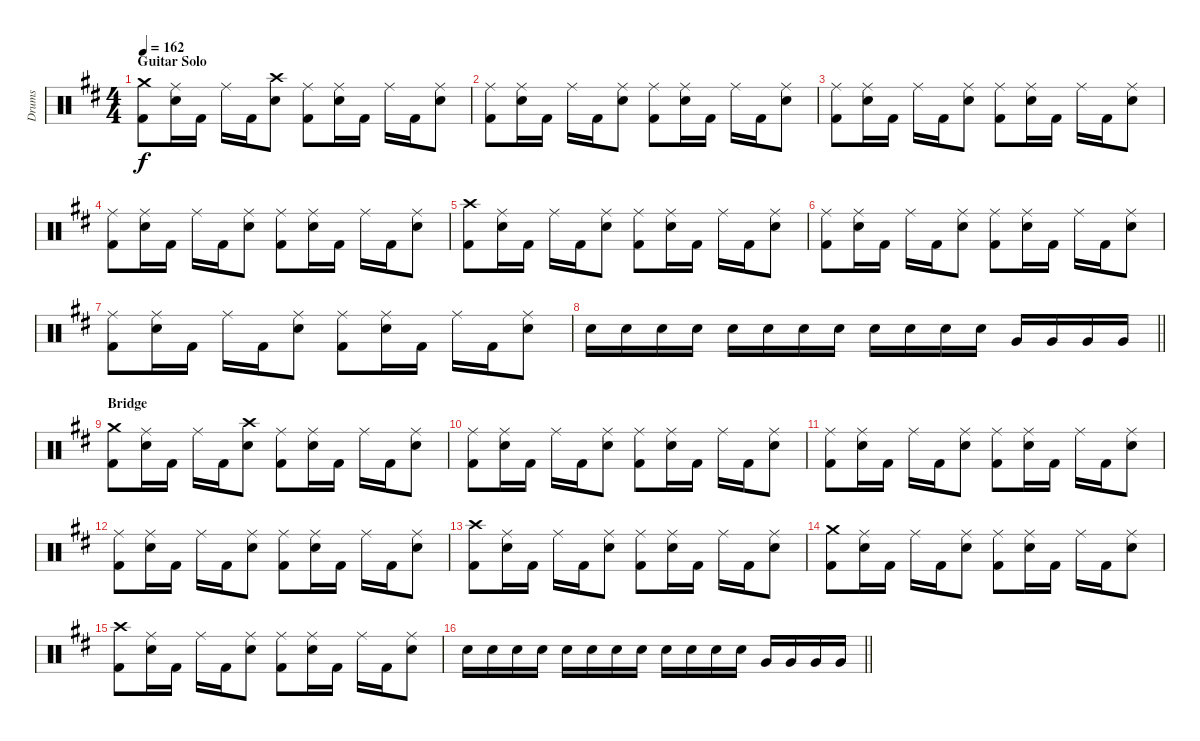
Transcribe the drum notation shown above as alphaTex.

\track ("Drums" "Drums") {instrument percussion}
\staff {score}
\articulation defaults
\ts (4 4)
\section ("" "Guitar Solo")
\tempo 162
\clef neutral
\ks d
("Crash medium (hit)" "Kick (hit) 2").8{dy f} ("Ride (middle)" "Snare (hit) 2").16 "Kick (hit) 2".16 "Ride (middle)".16 "Kick (hit) 2".16 ("Crash high (hit)" "Snare (hit) 2").8 ("Ride (middle)" "Kick (hit) 2").8 ("Ride (middle)" "Snare (hit) 2").16 "Kick (hit) 2".16 "Ride (middle)".16 "Kick (hit) 2".16 ("Ride (middle)" "Snare (hit) 2").8 |
("Ride (middle)" "Kick (hit) 2").8 ("Ride (middle)" "Snare (hit) 2").16 "Kick (hit) 2".16 "Ride (middle)".16 "Kick (hit) 2".16 ("Ride (middle)" "Snare (hit) 2").8 ("Ride (middle)" "Kick (hit) 2").8 ("Ride (middle)" "Snare (hit) 2").16 "Kick (hit) 2".16 "Ride (middle)".16 "Kick (hit) 2".16 ("Ride (middle)" "Snare (hit) 2").8 |
("Ride (middle)" "Kick (hit) 2").8 ("Ride (middle)" "Snare (hit) 2").16 "Kick (hit) 2".16 "Ride (middle)".16 "Kick (hit) 2".16 ("Ride (middle)" "Snare (hit) 2").8 ("Ride (middle)" "Kick (hit) 2").8 ("Ride (middle)" "Snare (hit) 2").16 "Kick (hit) 2".16 "Ride (middle)".16 "Kick (hit) 2".16 ("Ride (middle)" "Snare (hit) 2").8 |
("Ride (middle)" "Kick (hit) 2").8 ("Ride (middle)" "Snare (hit) 2").16 "Kick (hit) 2".16 "Ride (middle)".16 "Kick (hit) 2".16 ("Ride (middle)" "Snare (hit) 2").8 ("Ride (middle)" "Kick (hit) 2").8 ("Ride (middle)" "Snare (hit) 2").16 "Kick (hit) 2".16 "Ride (middle)".16 "Kick (hit) 2".16 ("Ride (middle)" "Snare (hit) 2").8 |
("Crash high (hit)" "Kick (hit) 2").8 ("Ride (middle)" "Snare (hit) 2").16 "Kick (hit) 2".16 "Ride (middle)".16 "Kick (hit) 2".16 ("Ride (middle)" "Snare (hit) 2").8 ("Ride (middle)" "Kick (hit) 2").8 ("Ride (middle)" "Snare (hit) 2").16 "Kick (hit) 2".16 "Ride (middle)".16 "Kick (hit) 2".16 ("Ride (middle)" "Snare (hit) 2").8 |
("Ride (middle)" "Kick (hit) 2").8 ("Ride (middle)" "Snare (hit) 2").16 "Kick (hit) 2".16 "Ride (middle)".16 "Kick (hit) 2".16 ("Ride (middle)" "Snare (hit) 2").8 ("Ride (middle)" "Kick (hit) 2").8 ("Ride (middle)" "Snare (hit) 2").16 "Kick (hit) 2".16 "Ride (middle)".16 "Kick (hit) 2".16 ("Ride (middle)" "Snare (hit) 2").8 |
("Ride (middle)" "Kick (hit) 2").8 ("Ride (middle)" "Snare (hit) 2").16 "Kick (hit) 2".16 "Ride (middle)".16 "Kick (hit) 2".16 ("Ride (middle)" "Snare (hit) 2").8 ("Ride (middle)" "Kick (hit) 2").8 ("Ride (middle)" "Snare (hit) 2").16 "Kick (hit) 2".16 "Ride (middle)".16 "Kick (hit) 2".16 ("Ride (middle)" "Snare (hit) 2").8 |
\barLineRight lightlight "Snare (hit) 2".16 "Snare (hit) 2".16 "Snare (hit) 2".16 "Snare (hit) 2".16 "Snare (hit) 2".16 "Snare (hit) 2".16 "Snare (hit) 2".16 "Snare (hit) 2".16 "Snare (hit) 2".16 "Snare (hit) 2".16 "Snare (hit) 2".16 "Snare (hit) 2".16 "Very Low Tom (hit)".16 "Very Low Tom (hit)".16 "Very Low Tom (hit)".16 "Very Low Tom (hit)".16
|
\section ("" "Bridge")
("Crash medium (hit)" "Kick (hit) 2").8 ("Ride (middle)" "Snare (hit) 2").16 "Kick (hit) 2".16 "Ride (middle)".16 "Kick (hit) 2".16 ("Crash high (hit)" "Snare (hit) 2").8 ("Ride (middle)" "Kick (hit) 2").8 ("Ride (middle)" "Snare (hit) 2").16 "Kick (hit) 2".16 "Ride (middle)".16 "Kick (hit) 2".16 ("Ride (middle)" "Snare (hit) 2").8 |
("Ride (middle)" "Kick (hit) 2").8 ("Ride (middle)" "Snare (hit) 2").16 "Kick (hit) 2".16 "Ride (middle)".16 "Kick (hit) 2".16 ("Ride (middle)" "Snare (hit) 2").8 ("Ride (middle)" "Kick (hit) 2").8 ("Ride (middle)" "Snare (hit) 2").16 "Kick (hit) 2".16 "Ride (middle)".16 "Kick (hit) 2".16 ("Ride (middle)" "Snare (hit) 2").8 |
("Ride (middle)" "Kick (hit) 2").8 ("Ride (middle)" "Snare (hit) 2").16 "Kick (hit) 2".16 "Ride (middle)".16 "Kick (hit) 2".16 ("Ride (middle)" "Snare (hit) 2").8 ("Ride (middle)" "Kick (hit) 2").8 ("Ride (middle)" "Snare (hit) 2").16 "Kick (hit) 2".16 "Ride (middle)".16 "Kick (hit) 2".16 ("Ride (middle)" "Snare (hit) 2").8 |
("Ride (middle)" "Kick (hit) 2").8 ("Ride (middle)" "Snare (hit) 2").16 "Kick (hit) 2".16 "Ride (middle)".16 "Kick (hit) 2".16 ("Ride (middle)" "Snare (hit) 2").8 ("Ride (middle)" "Kick (hit) 2").8 ("Ride (middle)" "Snare (hit) 2").16 "Kick (hit) 2".16 "Ride (middle)".16 "Kick (hit) 2".16 ("Ride (middle)" "Snare (hit) 2").8 |
("Crash high (hit)" "Kick (hit) 2").8 ("Ride (middle)" "Snare (hit) 2").16 "Kick (hit) 2".16 "Ride (middle)".16 "Kick (hit) 2".16 ("Ride (middle)" "Snare (hit) 2").8 ("Ride (middle)" "Kick (hit) 2").8 ("Ride (middle)" "Snare (hit) 2").16 "Kick (hit) 2".16 "Ride (middle)".16 "Kick (hit) 2".16 ("Ride (middle)" "Snare (hit) 2").8 |
("Crash medium (hit)" "Kick (hit) 2").8 ("Ride (middle)" "Snare (hit) 2").16 "Kick (hit) 2".16 "Ride (middle)".16 "Kick (hit) 2".16 ("Ride (middle)" "Snare (hit) 2").8 ("Ride (middle)" "Kick (hit) 2").8 ("Ride (middle)" "Snare (hit) 2").16 "Kick (hit) 2".16 "Ride (middle)".16 "Kick (hit) 2".16 ("Ride (middle)" "Snare (hit) 2").8 |
("Crash high (hit)" "Kick (hit) 2").8 ("Ride (middle)" "Snare (hit) 2").16 "Kick (hit) 2".16 "Ride (middle)".16 "Kick (hit) 2".16 ("Ride (middle)" "Snare (hit) 2").8 ("Ride (middle)" "Kick (hit) 2").8 ("Ride (middle)" "Snare (hit) 2").16 "Kick (hit) 2".16 "Ride (middle)".16 "Kick (hit) 2".16 ("Ride (middle)" "Snare (hit) 2").8 |
\barLineRight lightlight "Snare (hit) 2".16 "Snare (hit) 2".16 "Snare (hit) 2".16 "Snare (hit) 2".16 "Snare (hit) 2".16 "Snare (hit) 2".16 "Snare (hit) 2".16 "Snare (hit) 2".16 "Snare (hit) 2".16 "Snare (hit) 2".16 "Snare (hit) 2".16 "Snare (hit) 2".16 "Very Low Tom (hit)".16 "Very Low Tom (hit)".16 "Very Low Tom (hit)".16 "Very Low Tom (hit)".16
